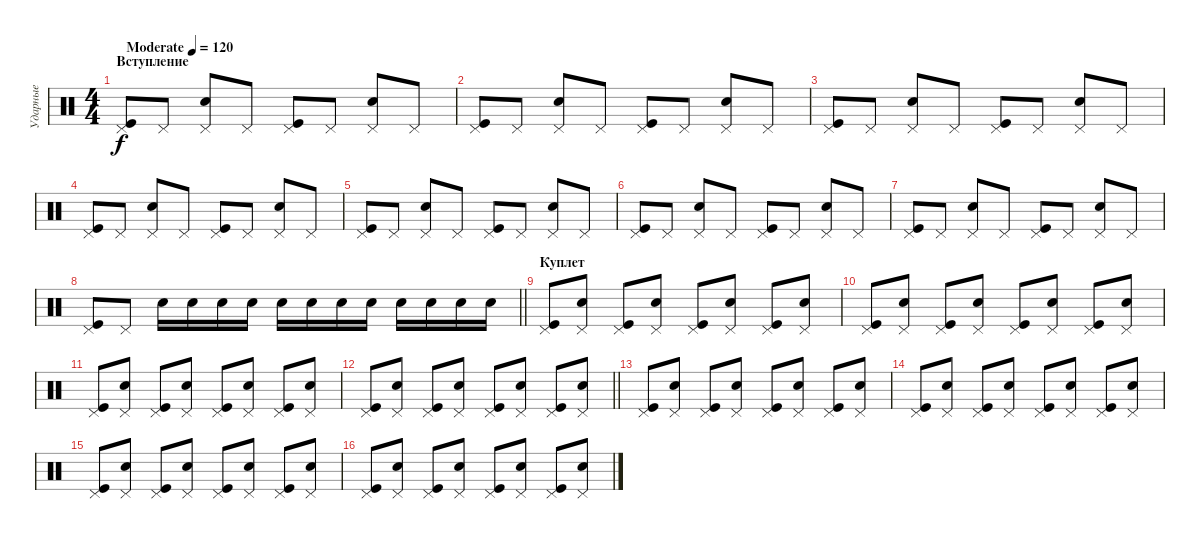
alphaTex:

\track ("Ударные" "Ударные") {instrument percussion}
\staff {score}
\articulation defaults
\ts (4 4)
\section ("" "Вступление")
\tempo (120 "Moderate")
\clef neutral
\ks c
("Kick (hit)" "Pedal Hi-Hat (hit)").8{dy f} "Pedal Hi-Hat (hit)".8 ("Snare (hit) 2" "Pedal Hi-Hat (hit)").8 "Pedal Hi-Hat (hit)".8 ("Kick (hit)" "Pedal Hi-Hat (hit)").8 "Pedal Hi-Hat (hit)".8 ("Snare (hit) 2" "Pedal Hi-Hat (hit)").8 "Pedal Hi-Hat (hit)".8 |
("Kick (hit)" "Pedal Hi-Hat (hit)").8 "Pedal Hi-Hat (hit)".8 ("Snare (hit) 2" "Pedal Hi-Hat (hit)").8 "Pedal Hi-Hat (hit)".8 ("Kick (hit)" "Pedal Hi-Hat (hit)").8 "Pedal Hi-Hat (hit)".8 ("Snare (hit) 2" "Pedal Hi-Hat (hit)").8 "Pedal Hi-Hat (hit)".8 |
("Kick (hit)" "Pedal Hi-Hat (hit)").8 "Pedal Hi-Hat (hit)".8 ("Snare (hit) 2" "Pedal Hi-Hat (hit)").8 "Pedal Hi-Hat (hit)".8 ("Kick (hit)" "Pedal Hi-Hat (hit)").8 "Pedal Hi-Hat (hit)".8 ("Snare (hit) 2" "Pedal Hi-Hat (hit)").8 "Pedal Hi-Hat (hit)".8 |
("Kick (hit)" "Pedal Hi-Hat (hit)").8 "Pedal Hi-Hat (hit)".8 ("Snare (hit) 2" "Pedal Hi-Hat (hit)").8 "Pedal Hi-Hat (hit)".8 ("Kick (hit)" "Pedal Hi-Hat (hit)").8 "Pedal Hi-Hat (hit)".8 ("Snare (hit) 2" "Pedal Hi-Hat (hit)").8 "Pedal Hi-Hat (hit)".8 |
("Kick (hit)" "Pedal Hi-Hat (hit)").8 "Pedal Hi-Hat (hit)".8 ("Snare (hit) 2" "Pedal Hi-Hat (hit)").8 "Pedal Hi-Hat (hit)".8 ("Kick (hit)" "Pedal Hi-Hat (hit)").8 "Pedal Hi-Hat (hit)".8 ("Snare (hit) 2" "Pedal Hi-Hat (hit)").8 "Pedal Hi-Hat (hit)".8 |
("Kick (hit)" "Pedal Hi-Hat (hit)").8 "Pedal Hi-Hat (hit)".8 ("Snare (hit) 2" "Pedal Hi-Hat (hit)").8 "Pedal Hi-Hat (hit)".8 ("Kick (hit)" "Pedal Hi-Hat (hit)").8 "Pedal Hi-Hat (hit)".8 ("Snare (hit) 2" "Pedal Hi-Hat (hit)").8 "Pedal Hi-Hat (hit)".8 |
("Kick (hit)" "Pedal Hi-Hat (hit)").8 "Pedal Hi-Hat (hit)".8 ("Snare (hit) 2" "Pedal Hi-Hat (hit)").8 "Pedal Hi-Hat (hit)".8 ("Kick (hit)" "Pedal Hi-Hat (hit)").8 "Pedal Hi-Hat (hit)".8 ("Snare (hit) 2" "Pedal Hi-Hat (hit)").8 "Pedal Hi-Hat (hit)".8 |
\barLineRight lightlight
("Kick (hit)" "Pedal Hi-Hat (hit)").8 "Pedal Hi-Hat (hit)".8 "Snare (hit) 2".16 "Snare (hit) 2".16 "Snare (hit) 2".16 "Snare (hit) 2".16 "Snare (hit) 2".16 "Snare (hit) 2".16 "Snare (hit) 2".16 "Snare (hit) 2".16 "Snare (hit) 2".16 "Snare (hit) 2".16 "Snare (hit) 2".16 "Snare (hit) 2".16 |
\section ("" "Куплет")
("Kick (hit)" "Pedal Hi-Hat (hit)").8 ("Snare (hit) 2" "Pedal Hi-Hat (hit)").8 ("Kick (hit)" "Pedal Hi-Hat (hit)").8 ("Snare (hit) 2" "Pedal Hi-Hat (hit)").8 ("Kick (hit)" "Pedal Hi-Hat (hit)").8 ("Snare (hit) 2" "Pedal Hi-Hat (hit)").8 ("Kick (hit)" "Pedal Hi-Hat (hit)").8 ("Snare (hit) 2" "Pedal Hi-Hat (hit)").8 |
("Kick (hit)" "Pedal Hi-Hat (hit)").8 ("Snare (hit) 2" "Pedal Hi-Hat (hit)").8 ("Kick (hit)" "Pedal Hi-Hat (hit)").8 ("Snare (hit) 2" "Pedal Hi-Hat (hit)").8 ("Kick (hit)" "Pedal Hi-Hat (hit)").8 ("Snare (hit) 2" "Pedal Hi-Hat (hit)").8 ("Kick (hit)" "Pedal Hi-Hat (hit)").8 ("Snare (hit) 2" "Pedal Hi-Hat (hit)").8 |
("Kick (hit)" "Pedal Hi-Hat (hit)").8 ("Snare (hit) 2" "Pedal Hi-Hat (hit)").8 ("Kick (hit)" "Pedal Hi-Hat (hit)").8 ("Snare (hit) 2" "Pedal Hi-Hat (hit)").8 ("Kick (hit)" "Pedal Hi-Hat (hit)").8 ("Snare (hit) 2" "Pedal Hi-Hat (hit)").8 ("Kick (hit)" "Pedal Hi-Hat (hit)").8 ("Snare (hit) 2" "Pedal Hi-Hat (hit)").8 |
\barLineRight lightlight
("Kick (hit)" "Pedal Hi-Hat (hit)").8 ("Snare (hit) 2" "Pedal Hi-Hat (hit)").8 ("Kick (hit)" "Pedal Hi-Hat (hit)").8 ("Snare (hit) 2" "Pedal Hi-Hat (hit)").8 ("Kick (hit)" "Pedal Hi-Hat (hit)").8 ("Snare (hit) 2" "Pedal Hi-Hat (hit)").8 ("Kick (hit)" "Pedal Hi-Hat (hit)").8 ("Snare (hit) 2" "Pedal Hi-Hat (hit)").8 |
\section ("" "")
("Kick (hit)" "Pedal Hi-Hat (hit)").8 ("Snare (hit) 2" "Pedal Hi-Hat (hit)").8 ("Kick (hit)" "Pedal Hi-Hat (hit)").8 ("Snare (hit) 2" "Pedal Hi-Hat (hit)").8 ("Kick (hit)" "Pedal Hi-Hat (hit)").8 ("Snare (hit) 2" "Pedal Hi-Hat (hit)").8 ("Kick (hit)" "Pedal Hi-Hat (hit)").8 ("Snare (hit) 2" "Pedal Hi-Hat (hit)").8 |
("Kick (hit)" "Pedal Hi-Hat (hit)").8 ("Snare (hit) 2" "Pedal Hi-Hat (hit)").8 ("Kick (hit)" "Pedal Hi-Hat (hit)").8 ("Snare (hit) 2" "Pedal Hi-Hat (hit)").8 ("Kick (hit)" "Pedal Hi-Hat (hit)").8 ("Snare (hit) 2" "Pedal Hi-Hat (hit)").8 ("Kick (hit)" "Pedal Hi-Hat (hit)").8 ("Snare (hit) 2" "Pedal Hi-Hat (hit)").8 |
("Kick (hit)" "Pedal Hi-Hat (hit)").8 ("Snare (hit) 2" "Pedal Hi-Hat (hit)").8 ("Kick (hit)" "Pedal Hi-Hat (hit)").8 ("Snare (hit) 2" "Pedal Hi-Hat (hit)").8 ("Kick (hit)" "Pedal Hi-Hat (hit)").8 ("Snare (hit) 2" "Pedal Hi-Hat (hit)").8 ("Kick (hit)" "Pedal Hi-Hat (hit)").8 ("Snare (hit) 2" "Pedal Hi-Hat (hit)").8 |
("Kick (hit)" "Pedal Hi-Hat (hit)").8 ("Snare (hit) 2" "Pedal Hi-Hat (hit)").8 ("Kick (hit)" "Pedal Hi-Hat (hit)").8 ("Snare (hit) 2" "Pedal Hi-Hat (hit)").8 ("Kick (hit)" "Pedal Hi-Hat (hit)").8 ("Snare (hit) 2" "Pedal Hi-Hat (hit)").8 ("Kick (hit)" "Pedal Hi-Hat (hit)").8 ("Snare (hit) 2" "Pedal Hi-Hat (hit)").8
